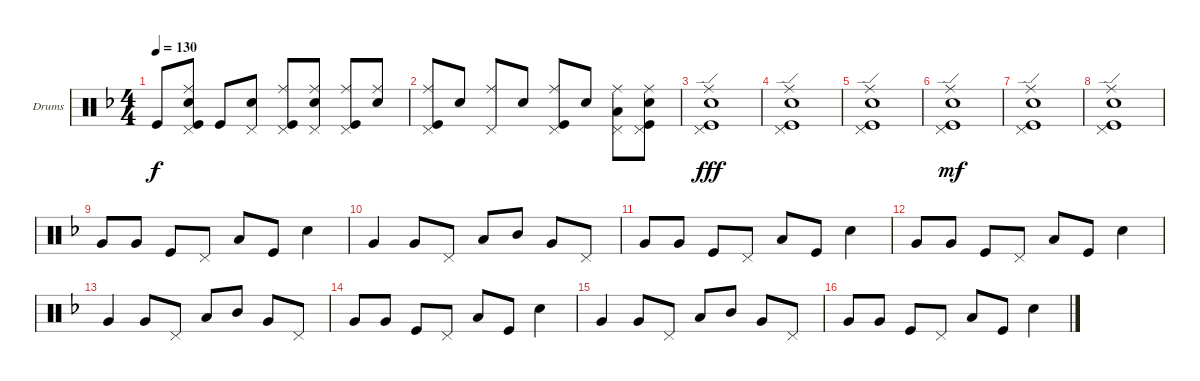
\defaultSystemsLayout 4
\bracketExtendMode groupsimilarinstruments
\firstSystemTrackNameOrientation horizontal
\otherSystemsTrackNameOrientation horizontal
\track ("Drumkit" "Drums") {instrument percussion}
\staff {score}
\articulation defaults
\ts (4 4)
\tempo 130
\clef neutral
\ks f "Kick (hit)".8{dy f}
("Ride (middle)" "Pedal Hi-Hat (hit)" "Snare (hit) 2" "Kick (hit)").8 "Kick (hit)".8 ("Pedal Hi-Hat (hit)" "Snare (hit) 2").8 ("Kick (hit)" "Pedal Hi-Hat (hit)" "Ride (middle)").8 ("Pedal Hi-Hat (hit)" "Snare (hit) 2" "Ride (middle)").8 ("Ride (middle)" "Kick (hit)" "Pedal Hi-Hat (hit)").8 ("Ride (middle)" "Snare (hit) 2").8 |
("Ride (middle)" "Pedal Hi-Hat (hit)" "Kick (hit)").8 "Snare (hit) 2".8 ("Ride (middle)" "Pedal Hi-Hat (hit)").8 "Snare (hit) 2".8 ("Pedal Hi-Hat (hit)" "Kick (hit)" "Ride (middle)").8 "Snare (hit) 2".8 ("Ride (middle)" "Pedal Hi-Hat (hit)" "Low Tom (hit)").8 ("Snare (hit) 2" "Ride (middle)" "Kick (hit)" "Pedal Hi-Hat (hit)").8 |
("Pedal Hi-Hat (hit)" "Kick (hit)" "Snare (hit) 2" "Ride (edge)").1{dy fff} |
("Pedal Hi-Hat (hit)" "Kick (hit)" "Snare (hit) 2" "Ride (edge)").1 |
("Pedal Hi-Hat (hit)" "Kick (hit)" "Snare (hit) 2" "Ride (edge)").1 |
("Pedal Hi-Hat (hit)" "Kick (hit)" "Snare (hit) 2" "Ride (edge)").1{dy mf} |
("Pedal Hi-Hat (hit)" "Kick (hit)" "Snare (hit) 2" "Ride (edge)").1 |
("Pedal Hi-Hat (hit)" "Kick (hit)" "Snare (hit) 2" "Ride (edge)").1 |
"Very Low Tom (hit)".8 "Very Low Tom (hit)".8 "Kick (hit)".8 "Pedal Hi-Hat (hit)".8 "Low Tom (hit)".8 "Kick (hit)".8 "Snare (hit) 2".4 |
"Very Low Tom (hit)".4 "Very Low Tom (hit)".8 "Pedal Hi-Hat (hit)".8 "Low Tom (hit)".8 "Mid Tom (hit)".8 "Very Low Tom (hit)".8 "Pedal Hi-Hat (hit)".8 |
"Very Low Tom (hit)".8 "Very Low Tom (hit)".8 "Kick (hit)".8 "Pedal Hi-Hat (hit)".8 "Low Tom (hit)".8 "Kick (hit)".8 "Snare (hit) 2".4 |
"Very Low Tom (hit)".8 "Very Low Tom (hit)".8 "Kick (hit)".8 "Pedal Hi-Hat (hit)".8 "Low Tom (hit)".8 "Kick (hit)".8 "Snare (hit) 2".4 |
"Very Low Tom (hit)".4 "Very Low Tom (hit)".8 "Pedal Hi-Hat (hit)".8 "Low Tom (hit)".8 "Mid Tom (hit)".8 "Very Low Tom (hit)".8 "Pedal Hi-Hat (hit)".8 |
"Very Low Tom (hit)".8 "Very Low Tom (hit)".8 "Kick (hit)".8 "Pedal Hi-Hat (hit)".8 "Low Tom (hit)".8 "Kick (hit)".8 "Snare (hit) 2".4 |
"Very Low Tom (hit)".4 "Very Low Tom (hit)".8 "Pedal Hi-Hat (hit)".8 "Low Tom (hit)".8 "Mid Tom (hit)".8 "Very Low Tom (hit)".8 "Pedal Hi-Hat (hit)".8 |
"Very Low Tom (hit)".8 "Very Low Tom (hit)".8 "Kick (hit)".8 "Pedal Hi-Hat (hit)".8 "Low Tom (hit)".8 "Kick (hit)".8 "Snare (hit) 2".4
